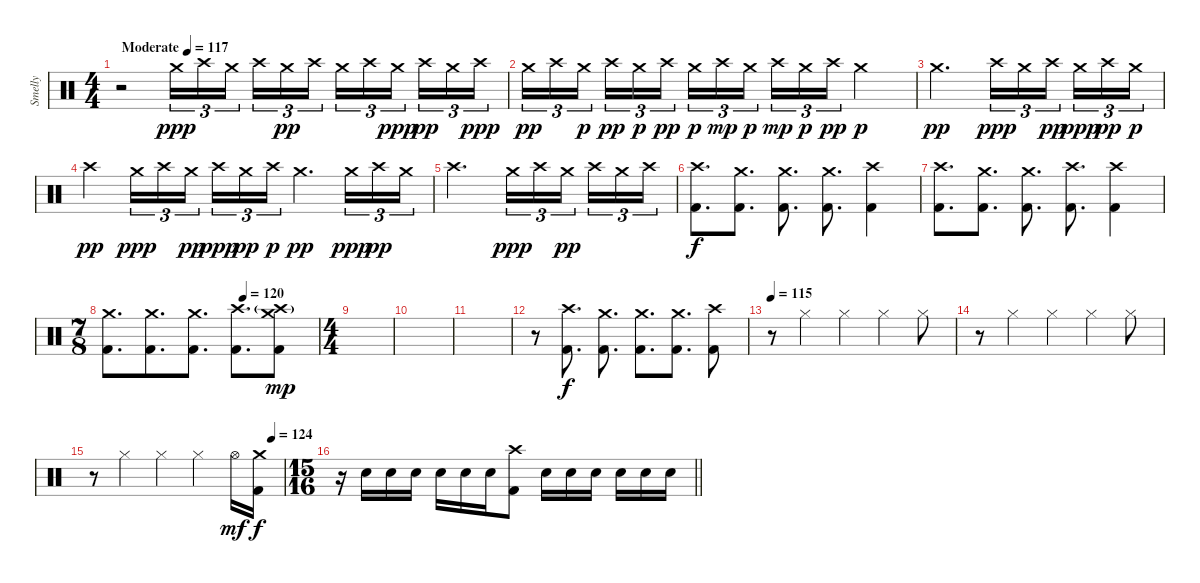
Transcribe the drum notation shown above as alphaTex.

\track ("Smelly" "Smelly") {instrument percussion}
\staff {score}
\articulation defaults
\ts (4 4)
\tempo (117 "Moderate")
\clef neutral
\ks c
r.2{dy ppp volume 9} "Crash medium (hit)".16{tu (3 2)} "Crash high (hit)".16{tu (3 2)} "Crash medium (hit)".16{tu (3 2) beam splitsecondary} "Crash high (hit)".16{tu (3 2)} "Crash medium (hit)".16{tu (3 2) dy pp} "Crash high (hit)".16{tu (3 2)} "Crash medium (hit)".16{tu (3 2)} "Crash high (hit)".16{tu (3 2)} "Crash medium (hit)".16{tu (3 2) dy ppp beam splitsecondary} "Crash high (hit)".16{tu (3 2) dy pp} "Crash medium (hit)".16{tu (3 2)} "Crash high (hit)".16{tu (3 2) dy ppp} |
"Crash medium (hit)".16{tu (3 2) dy pp} "Crash high (hit)".16{tu (3 2)} "Crash medium (hit)".16{tu (3 2) dy p beam splitsecondary} "Crash high (hit)".16{tu (3 2) dy pp} "Crash medium (hit)".16{tu (3 2) dy p} "Crash high (hit)".16{tu (3 2) dy pp} "Crash medium (hit)".16{tu (3 2) dy p} "Crash high (hit)".16{tu (3 2) dy mp} "Crash medium (hit)".16{tu (3 2) dy p beam splitsecondary} "Crash high (hit)".16{tu (3 2) dy mp} "Crash medium (hit)".16{tu (3 2) dy p} "Crash high (hit)".16{tu (3 2) dy pp} "Crash medium (hit)".2{dy p} |
"Crash medium (hit)".2{d dy pp} "Crash high (hit)".16{tu (3 2) dy ppp} "Crash medium (hit)".16{tu (3 2)} "Crash high (hit)".16{tu (3 2) dy pp beam splitsecondary} "Crash medium (hit)".16{tu (3 2) dy ppp} "Crash high (hit)".16{tu (3 2) dy pp} "Crash medium (hit)".16{tu (3 2) dy p} |
"Crash high (hit)".4{dy pp} "Crash medium (hit)".16{tu (3 2) dy ppp} "Crash high (hit)".16{tu (3 2)} "Crash medium (hit)".16{tu (3 2) dy pp beam splitsecondary} "Crash high (hit)".16{tu (3 2) dy ppp} "Crash medium (hit)".16{tu (3 2) dy pp} "Crash high (hit)".16{tu (3 2) dy p} "Crash medium (hit)".4{d dy pp} "Crash medium (hit)".16{tu (3 2) dy ppp} "Crash high (hit)".16{tu (3 2) dy pp} "Crash medium (hit)".16{tu (3 2)} |
"Crash high (hit)".2{d} "Crash medium (hit)".16{tu (3 2) dy ppp} "Crash high (hit)".16{tu (3 2)} "Crash medium (hit)".16{tu (3 2) dy pp beam splitsecondary} "Crash high (hit)".16{tu (3 2)} "Crash medium (hit)".16{tu (3 2)} "Crash high (hit)".16{tu (3 2)} |
("Crash high (hit)" "Kick (hit) 2").8{d dy f volume 14} ("Crash medium (hit)" "Kick (hit) 2").8{d} ("Crash medium (hit)" "Kick (hit) 2").8{d} ("Crash medium (hit)" "Kick (hit) 2").8{d} ("Crash high (hit)" "Kick (hit) 2").4 |
("Crash high (hit)" "Kick (hit) 2").8{d} ("Crash medium (hit)" "Kick (hit) 2").8{d} ("Crash medium (hit)" "Kick (hit) 2").8{d} ("Crash high (hit)" "Kick (hit) 2").8{d} ("Crash high (hit)" "Kick (hit) 2").4 |
\ts (7 8)
\tempo (120 0.6428571428571429)
("Crash medium (hit)" "Kick (hit) 2").8{d} ("Crash medium (hit)" "Kick (hit) 2").8{d} ("Crash medium (hit)" "Kick (hit) 2").8{d} ("Crash high (hit)" "Kick (hit) 2").8{d} ("Crash medium (hit)" "Crash high (hit)"{g} "Kick (hit) 2").8{dy mp} |
\ts (4 4)
|
|
|
r.8 ("Crash high (hit)" "Kick (hit) 2").8{d dy f} ("Crash medium (hit)" "Kick (hit) 2").8{d} ("Crash medium (hit)" "Kick (hit) 2").8{d} ("Crash medium (hit)" "Kick (hit) 2").8{d} ("Crash high (hit)" "Kick (hit) 2").8 |
\tempo 115
r.8 "Hi-Hat (closed)".4 "Hi-Hat (closed)".4 "Hi-Hat (closed)".4 "Hi-Hat (closed)".8 |
r.8 "Hi-Hat (closed)".4 "Hi-Hat (closed)".4 "Hi-Hat (closed)".4 "Hi-Hat (closed)".8 |
\tempo (124 0.9375)
r.8 "Hi-Hat (closed)".4 "Hi-Hat (closed)".4 "Hi-Hat (closed)".4 "Hi-Hat (open)".16{dy mf} ("Crash medium (hit)" "Kick (hit) 2").16{dy f} |
\ts (15 16)
\barLineRight lightlight
r.16 "Electric Snare (hit)".16 "Electric Snare (hit)".16 "Electric Snare (hit)".16 "Electric Snare (hit)".16 "Electric Snare (hit)".16 "Electric Snare (hit)".16 ("Crash high (hit)" "Kick (hit) 2").8 "Electric Snare (hit)".16 "Electric Snare (hit)".16 "Electric Snare (hit)".16 "Electric Snare (hit)".16 "Electric Snare (hit)".16 "Electric Snare (hit)".16
